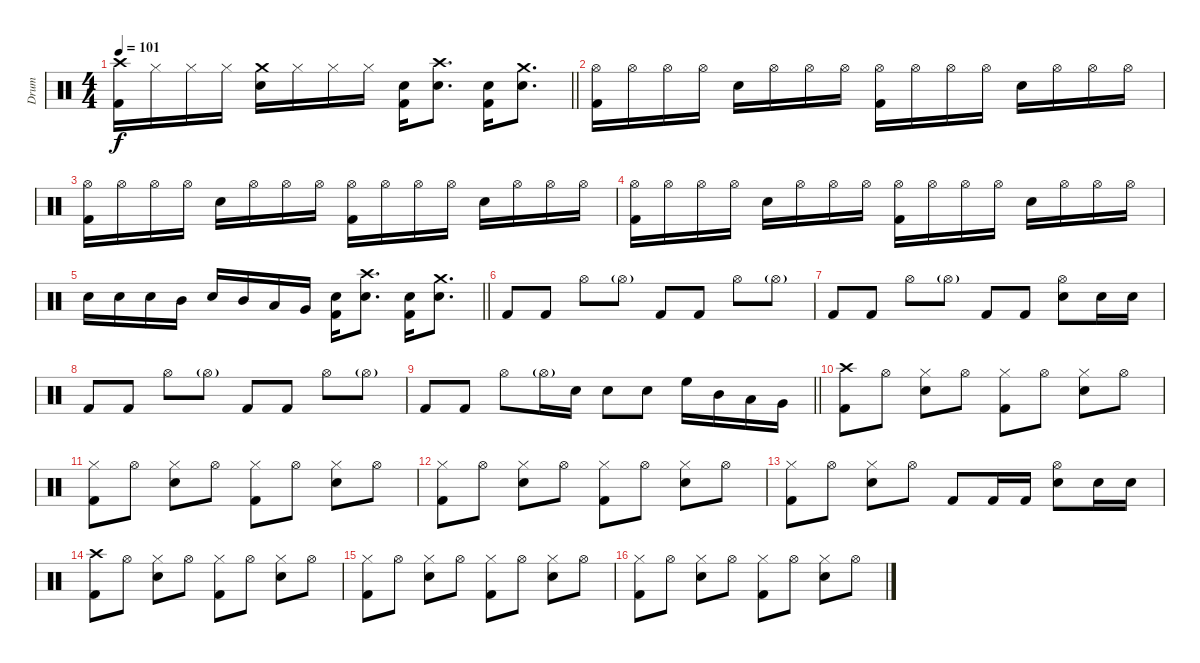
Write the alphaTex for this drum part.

\track ("Drum" "Drum") {instrument percussion}
\staff {score}
\articulation defaults
\ts (4 4)
\tempo 101
\clef neutral
\barLineRight lightlight
\ks c
("Crash high (hit)" "Kick (hit) 2").16{dy f} "Hi-Hat (closed)".16 "Hi-Hat (closed)".16 "Hi-Hat (closed)".16 ("Crash medium (hit)" "Snare (hit) 2").16 "Hi-Hat (closed)".16 "Hi-Hat (closed)".16 "Hi-Hat (closed)".16 ("Snare (hit) 2" "Kick (hit) 2").16{volume 13} ("Crash high (hit)" "Snare (hit) 2").8{d} ("Snare (hit) 2" "Kick (hit) 2").16 ("Crash medium (hit)" "Snare (hit) 2").8{d} |
("Hi-Hat (open)" "Kick (hit) 2").16 "Hi-Hat (open)".16 "Hi-Hat (open)".16 "Hi-Hat (open)".16 "Snare (hit) 2".16 "Hi-Hat (open)".16 "Hi-Hat (open)".16 "Hi-Hat (open)".16 ("Hi-Hat (open)" "Kick (hit) 2").16 "Hi-Hat (open)".16 "Hi-Hat (open)".16 "Hi-Hat (open)".16 "Snare (hit) 2".16 "Hi-Hat (open)".16 "Hi-Hat (open)".16 "Hi-Hat (open)".16 |
("Hi-Hat (open)" "Kick (hit) 2").16 "Hi-Hat (open)".16 "Hi-Hat (open)".16 "Hi-Hat (open)".16 "Snare (hit) 2".16 "Hi-Hat (open)".16 "Hi-Hat (open)".16 "Hi-Hat (open)".16 ("Hi-Hat (open)" "Kick (hit) 2").16 "Hi-Hat (open)".16 "Hi-Hat (open)".16 "Hi-Hat (open)".16 "Snare (hit) 2".16 "Hi-Hat (open)".16 "Hi-Hat (open)".16 "Hi-Hat (open)".16 |
("Hi-Hat (open)" "Kick (hit) 2").16 "Hi-Hat (open)".16 "Hi-Hat (open)".16 "Hi-Hat (open)".16 "Snare (hit) 2".16 "Hi-Hat (open)".16 "Hi-Hat (open)".16 "Hi-Hat (open)".16 ("Hi-Hat (open)" "Kick (hit) 2").16 "Hi-Hat (open)".16 "Hi-Hat (open)".16 "Hi-Hat (open)".16 "Snare (hit) 2".16 "Hi-Hat (open)".16 "Hi-Hat (open)".16 "Hi-Hat (open)".16 |
\barLineRight lightlight "Snare (hit) 2".16 "Snare (hit) 2".16 "Snare (hit) 2".16 "Mid Tom (hit)".16 "Snare (hit) 2".16 "Mid Tom (hit)".16 "Low Tom (hit)".16 "Very Low Tom (hit)".16
("Snare (hit) 2" "Kick (hit) 2").16{volume 13} ("Crash high (hit)" "Snare (hit) 2").8{d} ("Snare (hit) 2" "Kick (hit) 2").16 ("Crash medium (hit)" "Snare (hit) 2").8{d} |
"Kick (hit) 2".8 "Kick (hit) 2".8 "Hi-Hat (open)".8 "Hi-Hat (open)"{g}.8 "Kick (hit) 2".8 "Kick (hit) 2".8 "Hi-Hat (open)".8 "Hi-Hat (open)"{g}.8 |
"Kick (hit) 2".8 "Kick (hit) 2".8 "Hi-Hat (open)".8 "Hi-Hat (open)"{g}.8 "Kick (hit) 2".8 "Kick (hit) 2".8 ("Hi-Hat (open)" "Snare (hit) 2").8 "Snare (hit) 2".16 "Snare (hit) 2".16 |
"Kick (hit) 2".8 "Kick (hit) 2".8 "Hi-Hat (open)".8 "Hi-Hat (open)"{g}.8 "Kick (hit) 2".8 "Kick (hit) 2".8 "Hi-Hat (open)".8 "Hi-Hat (open)"{g}.8 |
\barLineRight lightlight "Kick (hit) 2".8 "Kick (hit) 2".8 "Hi-Hat (open)".8 "Hi-Hat (open)"{g}.16 "Snare (hit) 2".16 "Snare (hit) 2".8 "Snare (hit) 2".8 "High Floor Tom (hit)".16 "Mid Tom (hit)".16 "Low Tom (hit)".16 "Very Low Tom (hit)".16
|
("Crash high (hit)" "Kick (hit) 2").8 "Hi-Hat (open)".8 ("Hi-Hat (closed)" "Snare (hit) 2").8 "Hi-Hat (open)".8 ("Hi-Hat (closed)" "Kick (hit) 2").8 "Hi-Hat (open)".8 ("Hi-Hat (closed)" "Snare (hit) 2").8 "Hi-Hat (open)".8 |
("Hi-Hat (closed)" "Kick (hit) 2").8 "Hi-Hat (open)".8 ("Hi-Hat (closed)" "Snare (hit) 2").8 "Hi-Hat (open)".8 ("Hi-Hat (closed)" "Kick (hit) 2").8 "Hi-Hat (open)".8 ("Hi-Hat (closed)" "Snare (hit) 2").8 "Hi-Hat (open)".8 |
("Hi-Hat (closed)" "Kick (hit) 2").8 "Hi-Hat (open)".8 ("Hi-Hat (closed)" "Snare (hit) 2").8 "Hi-Hat (open)".8 ("Hi-Hat (closed)" "Kick (hit) 2").8 "Hi-Hat (open)".8 ("Hi-Hat (closed)" "Snare (hit) 2").8 "Hi-Hat (open)".8 |
("Hi-Hat (closed)" "Kick (hit) 2").8 "Hi-Hat (open)".8 ("Hi-Hat (closed)" "Snare (hit) 2").8 "Hi-Hat (open)".8 "Kick (hit) 2".8 "Kick (hit) 2".16 "Kick (hit) 2".16 ("Hi-Hat (open)" "Snare (hit) 2").8 "Snare (hit) 2".16 "Snare (hit) 2".16 |
("Crash high (hit)" "Kick (hit) 2").8 "Hi-Hat (open)".8 ("Hi-Hat (closed)" "Snare (hit) 2").8 "Hi-Hat (open)".8 ("Hi-Hat (closed)" "Kick (hit) 2").8 "Hi-Hat (open)".8 ("Hi-Hat (closed)" "Snare (hit) 2").8 "Hi-Hat (open)".8 |
("Hi-Hat (closed)" "Kick (hit) 2").8 "Hi-Hat (open)".8 ("Hi-Hat (closed)" "Snare (hit) 2").8 "Hi-Hat (open)".8 ("Hi-Hat (closed)" "Kick (hit) 2").8 "Hi-Hat (open)".8 ("Hi-Hat (closed)" "Snare (hit) 2").8 "Hi-Hat (open)".8 |
("Hi-Hat (closed)" "Kick (hit) 2").8 "Hi-Hat (open)".8 ("Hi-Hat (closed)" "Snare (hit) 2").8 "Hi-Hat (open)".8 ("Hi-Hat (closed)" "Kick (hit) 2").8 "Hi-Hat (open)".8 ("Hi-Hat (closed)" "Snare (hit) 2").8 "Hi-Hat (open)".8
